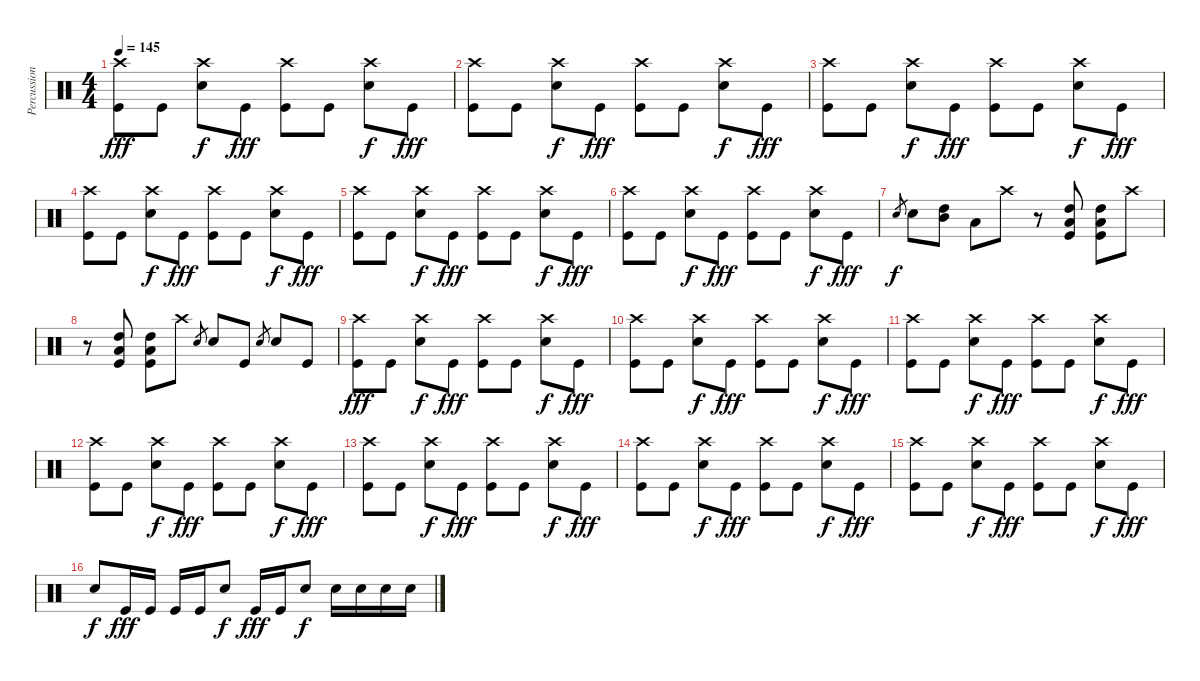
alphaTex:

\track ("Percussion" "Percussion") {instrument percussion}
\staff {score}
\articulation defaults
\ts (4 4)
\tempo 145
\clef neutral
\ks c
("Crash high (hit)" "Kick (hit)").8{dy fff} "Kick (hit)".8 ("Crash high (hit)" "Electric Snare (hit)").8{dy f} "Kick (hit)".8{dy fff} ("Crash high (hit)" "Kick (hit)").8 "Kick (hit)".8 ("Crash high (hit)" "Electric Snare (hit)").8{dy f} "Kick (hit)".8{dy fff} |
("Crash high (hit)" "Kick (hit)").8 "Kick (hit)".8 ("Crash high (hit)" "Electric Snare (hit)").8{dy f} "Kick (hit)".8{dy fff} ("Crash high (hit)" "Kick (hit)").8 "Kick (hit)".8 ("Crash high (hit)" "Electric Snare (hit)").8{dy f} "Kick (hit)".8{dy fff} |
("Crash high (hit)" "Kick (hit)").8 "Kick (hit)".8 ("Crash high (hit)" "Electric Snare (hit)").8{dy f} "Kick (hit)".8{dy fff} ("Crash high (hit)" "Kick (hit)").8 "Kick (hit)".8 ("Crash high (hit)" "Electric Snare (hit)").8{dy f} "Kick (hit)".8{dy fff} |
("Crash high (hit)" "Kick (hit)").8 "Kick (hit)".8 ("Crash high (hit)" "Electric Snare (hit)").8{dy f} "Kick (hit)".8{dy fff} ("Crash high (hit)" "Kick (hit)").8 "Kick (hit)".8 ("Crash high (hit)" "Electric Snare (hit)").8{dy f} "Kick (hit)".8{dy fff} |
("Crash high (hit)" "Kick (hit)").8 "Kick (hit)".8 ("Crash high (hit)" "Electric Snare (hit)").8{dy f} "Kick (hit)".8{dy fff} ("Crash high (hit)" "Kick (hit)").8 "Kick (hit)".8 ("Crash high (hit)" "Electric Snare (hit)").8{dy f} "Kick (hit)".8{dy fff} |
("Crash high (hit)" "Kick (hit)").8 "Kick (hit)".8 ("Crash high (hit)" "Electric Snare (hit)").8{dy f} "Kick (hit)".8{dy fff} ("Crash high (hit)" "Kick (hit)").8 "Kick (hit)".8 ("Crash high (hit)" "Electric Snare (hit)").8{dy f} "Kick (hit)".8{dy fff} |
"Electric Snare (hit)".8{gr dy f} "Electric Snare (hit)".8 ("High Tom (hit)" "Mid Tom (hit)").8 "Low Floor Tom (hit)".8 "Crash high (hit)".8 r.8 ("High Tom (hit)" "Low Floor Tom (hit)" "Kick (hit)").8 ("High Tom (hit)" "Low Floor Tom (hit)" "Kick (hit)").8 "Crash high (hit)".8 |
r.8 ("High Tom (hit)" "Low Floor Tom (hit)" "Kick (hit)").8 ("High Tom (hit)" "Low Floor Tom (hit)" "Kick (hit)").8 "Crash high (hit)".8 "Electric Snare (hit)".8{gr} "Electric Snare (hit)".8 "Kick (hit)".8 "Electric Snare (hit)".8{gr} "Electric Snare (hit)".8 "Kick (hit)".8 |
("Crash high (hit)" "Kick (hit)").8{dy fff} "Kick (hit)".8 ("Crash high (hit)" "Electric Snare (hit)").8{dy f} "Kick (hit)".8{dy fff} ("Crash high (hit)" "Kick (hit)").8 "Kick (hit)".8 ("Crash high (hit)" "Electric Snare (hit)").8{dy f} "Kick (hit)".8{dy fff} |
("Crash high (hit)" "Kick (hit)").8 "Kick (hit)".8 ("Crash high (hit)" "Electric Snare (hit)").8{dy f} "Kick (hit)".8{dy fff} ("Crash high (hit)" "Kick (hit)").8 "Kick (hit)".8 ("Crash high (hit)" "Electric Snare (hit)").8{dy f} "Kick (hit)".8{dy fff} |
("Crash high (hit)" "Kick (hit)").8 "Kick (hit)".8 ("Crash high (hit)" "Electric Snare (hit)").8{dy f} "Kick (hit)".8{dy fff} ("Crash high (hit)" "Kick (hit)").8 "Kick (hit)".8 ("Crash high (hit)" "Electric Snare (hit)").8{dy f} "Kick (hit)".8{dy fff} |
("Crash high (hit)" "Kick (hit)").8 "Kick (hit)".8 ("Crash high (hit)" "Electric Snare (hit)").8{dy f} "Kick (hit)".8{dy fff} ("Crash high (hit)" "Kick (hit)").8 "Kick (hit)".8 ("Crash high (hit)" "Electric Snare (hit)").8{dy f} "Kick (hit)".8{dy fff} |
("Crash high (hit)" "Kick (hit)").8 "Kick (hit)".8 ("Crash high (hit)" "Electric Snare (hit)").8{dy f} "Kick (hit)".8{dy fff} ("Crash high (hit)" "Kick (hit)").8 "Kick (hit)".8 ("Crash high (hit)" "Electric Snare (hit)").8{dy f} "Kick (hit)".8{dy fff} |
("Crash high (hit)" "Kick (hit)").8 "Kick (hit)".8 ("Crash high (hit)" "Electric Snare (hit)").8{dy f} "Kick (hit)".8{dy fff} ("Crash high (hit)" "Kick (hit)").8 "Kick (hit)".8 ("Crash high (hit)" "Electric Snare (hit)").8{dy f} "Kick (hit)".8{dy fff} |
("Crash high (hit)" "Kick (hit)").8 "Kick (hit)".8 ("Crash high (hit)" "Electric Snare (hit)").8{dy f} "Kick (hit)".8{dy fff} ("Crash high (hit)" "Kick (hit)").8 "Kick (hit)".8 ("Crash high (hit)" "Electric Snare (hit)").8{dy f} "Kick (hit)".8{dy fff} |
"Electric Snare (hit)".8{dy f} "Kick (hit)".16{dy fff} "Kick (hit)".16 "Kick (hit)".16 "Kick (hit)".16 "Electric Snare (hit)".8{dy f} "Kick (hit)".16{dy fff} "Kick (hit)".16 "Electric Snare (hit)".8{dy f} "Electric Snare (hit)".16 "Electric Snare (hit)".16 "Electric Snare (hit)".16 "Electric Snare (hit)".16
